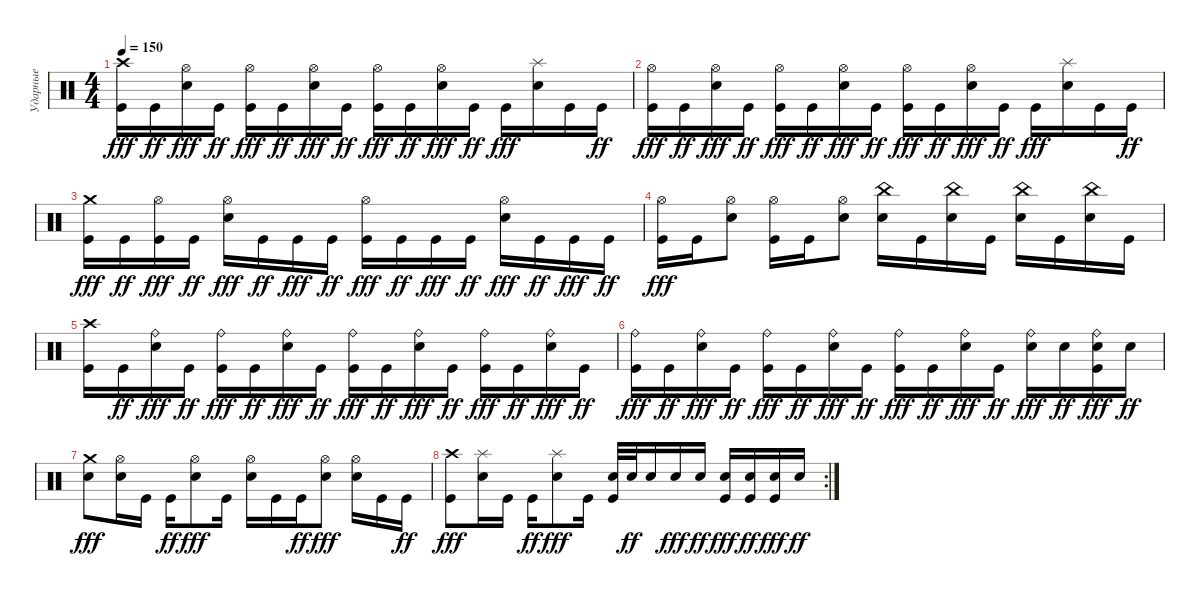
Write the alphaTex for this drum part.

\track ("Ударные" "Ударные") {instrument percussion}
\staff {score}
\articulation defaults
\ts (4 4)
\tempo 150
\clef neutral
\ks c
("Crash high (hit)" "Kick (hit)").16{dy fff} "Kick (hit)".16{dy ff} ("Hi-Hat (open)" "Electric Snare (hit)").16{dy fff} "Kick (hit)".16{dy ff} ("Hi-Hat (open)" "Kick (hit)").16{dy fff} "Kick (hit)".16{dy ff} ("Hi-Hat (open)" "Electric Snare (hit)").16{dy fff} "Kick (hit)".16{dy ff} ("Hi-Hat (open)" "Kick (hit)").16{dy fff} "Kick (hit)".16{dy ff} ("Hi-Hat (open)" "Electric Snare (hit)").16{dy fff} "Kick (hit)".16{dy ff} "Kick (hit)".16{dy fff} ("Splash (hit)" "Electric Snare (hit)").16 "Kick (hit)".16 "Kick (hit)".16{dy ff} |
("Hi-Hat (open)" "Kick (hit)").16{dy fff} "Kick (hit)".16{dy ff} ("Hi-Hat (open)" "Electric Snare (hit)").16{dy fff} "Kick (hit)".16{dy ff} ("Hi-Hat (open)" "Kick (hit)").16{dy fff} "Kick (hit)".16{dy ff} ("Hi-Hat (open)" "Electric Snare (hit)").16{dy fff} "Kick (hit)".16{dy ff} ("Hi-Hat (open)" "Kick (hit)").16{dy fff} "Kick (hit)".16{dy ff} ("Hi-Hat (open)" "Electric Snare (hit)").16{dy fff} "Kick (hit)".16{dy ff} "Kick (hit)".16{dy fff} ("Splash (hit)" "Electric Snare (hit)").16 "Kick (hit)".16 "Kick (hit)".16{dy ff} |
("Crash medium (hit)" "Kick (hit)").16{dy fff} "Kick (hit)".16{dy ff} ("Hi-Hat (open)" "Kick (hit)").16{dy fff} "Kick (hit)".16{dy ff} ("Hi-Hat (open)" "Electric Snare (hit)").16{dy fff} "Kick (hit)".16{dy ff} "Kick (hit)".16{dy fff} "Kick (hit)".16{dy ff} ("Hi-Hat (open)" "Kick (hit)").16{dy fff} "Kick (hit)".16{dy ff} "Kick (hit)".16{dy fff} "Kick (hit)".16{dy ff} ("Hi-Hat (open)" "Electric Snare (hit)").16{dy fff} "Kick (hit)".16{dy ff} "Kick (hit)".16{dy fff} "Kick (hit)".16{dy ff} |
("Hi-Hat (open)" "Kick (hit)").16{dy fff} "Kick (hit)".16 ("Hi-Hat (open)" "Electric Snare (hit)").8 ("Hi-Hat (open)" "Kick (hit)").16 "Kick (hit)".16 ("Hi-Hat (open)" "Electric Snare (hit)").8 ("China (hit)" "Electric Snare (hit)").16 "Kick (hit)".16 ("China (hit)" "Electric Snare (hit)").16 "Kick (hit)".16 ("China (hit)" "Electric Snare (hit)").16 "Kick (hit)".16 ("China (hit)" "Electric Snare (hit)").16 "Kick (hit)".16 |
("Crash high (hit)" "Kick (hit)").16 "Kick (hit)".16{dy ff} ("Ride (bell)" "Electric Snare (hit)").16{dy fff} "Kick (hit)".16{dy ff} ("Ride (bell)" "Kick (hit)").16{dy fff} "Kick (hit)".16{dy ff} ("Ride (bell)" "Electric Snare (hit)").16{dy fff} "Kick (hit)".16{dy ff} ("Ride (bell)" "Kick (hit)").16{dy fff} "Kick (hit)".16{dy ff} ("Ride (bell)" "Electric Snare (hit)").16{dy fff} "Kick (hit)".16{dy ff} ("Ride (bell)" "Kick (hit)").16{dy fff} "Kick (hit)".16{dy ff} ("Ride (bell)" "Electric Snare (hit)").16{dy fff} "Kick (hit)".16{dy ff} |
("Ride (bell)" "Kick (hit)").16{dy fff} "Kick (hit)".16{dy ff} ("Ride (bell)" "Electric Snare (hit)").16{dy fff} "Kick (hit)".16{dy ff} ("Ride (bell)" "Kick (hit)").16{dy fff} "Kick (hit)".16{dy ff} ("Ride (bell)" "Electric Snare (hit)").16{dy fff} "Kick (hit)".16{dy ff} ("Ride (bell)" "Kick (hit)").16{dy fff} "Kick (hit)".16{dy ff} ("Ride (bell)" "Electric Snare (hit)").16{dy fff} "Kick (hit)".16{dy ff} ("Ride (bell)" "Electric Snare (hit)").16{dy fff} "Electric Snare (hit)".16{dy ff} ("Ride (bell)" "Electric Snare (hit)" "Kick (hit)").16{dy fff} "Electric Snare (hit)".16{dy ff} |
("Crash medium (hit)" "Electric Snare (hit)").8{dy fff} ("Hi-Hat (open)" "Electric Snare (hit)").16 "Kick (hit)".16 "Kick (hit)".16{dy ff} ("Hi-Hat (open)" "Electric Snare (hit)").8{dy fff} "Kick (hit)".16 ("Hi-Hat (open)" "Electric Snare (hit)").16 "Kick (hit)".16 "Kick (hit)".16{dy ff} ("Hi-Hat (open)" "Electric Snare (hit)").8{dy fff} ("Hi-Hat (open)" "Electric Snare (hit)").16 "Kick (hit)".16 "Kick (hit)".16{dy ff} |
\rc 2
("Crash high (hit)" "Kick (hit)").8{dy fff} ("Splash (hit)" "Electric Snare (hit)").16 "Kick (hit)".16 "Kick (hit)".16{dy ff} ("Splash (hit)" "Electric Snare (hit)").8{dy fff} "Kick (hit)".16 ("Electric Snare (hit)" "Kick (hit)").32 "Electric Snare (hit)".32{dy ff} "Electric Snare (hit)".16 "Electric Snare (hit)".16{dy fff} "Electric Snare (hit)".16{dy ff} ("Electric Snare (hit)" "Kick (hit)").16{dy fff} ("Electric Snare (hit)" "Kick (hit)").16{dy ff} ("Electric Snare (hit)" "Kick (hit)").16{dy fff} "Electric Snare (hit)".16{dy ff}
